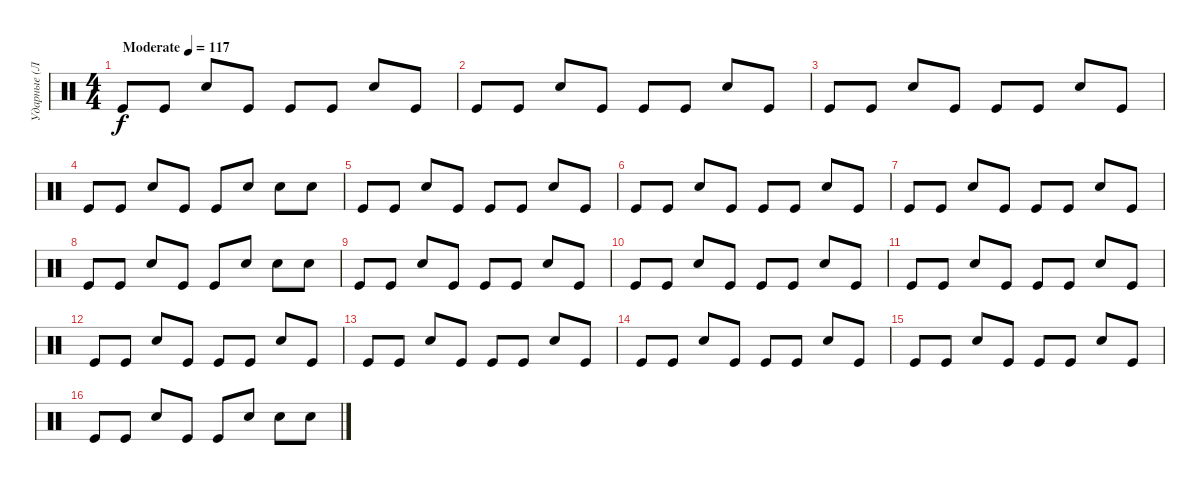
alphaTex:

\track ("Ударные (Летов)" "Ударные (Л") {instrument percussion}
\staff {score}
\articulation defaults
\ts (4 4)
\tempo (117 "Moderate")
\clef neutral
\ks c "Kick (hit)".8{dy f} "Kick (hit)".8 "Snare (hit) 2".8 "Kick (hit)".8 "Kick (hit)".8 "Kick (hit)".8 "Snare (hit) 2".8 "Kick (hit)".8
|
"Kick (hit)".8 "Kick (hit)".8 "Snare (hit) 2".8 "Kick (hit)".8 "Kick (hit)".8 "Kick (hit)".8 "Snare (hit) 2".8 "Kick (hit)".8 |
"Kick (hit)".8 "Kick (hit)".8 "Snare (hit) 2".8 "Kick (hit)".8 "Kick (hit)".8 "Kick (hit)".8 "Snare (hit) 2".8 "Kick (hit)".8 |
"Kick (hit)".8 "Kick (hit)".8 "Snare (hit) 2".8 "Kick (hit)".8 "Kick (hit)".8 "Snare (hit) 2".8 "Snare (hit) 2".8 "Snare (hit) 2".8 |
"Kick (hit)".8 "Kick (hit)".8 "Snare (hit) 2".8 "Kick (hit)".8 "Kick (hit)".8 "Kick (hit)".8 "Snare (hit) 2".8 "Kick (hit)".8 |
"Kick (hit)".8 "Kick (hit)".8 "Snare (hit) 2".8 "Kick (hit)".8 "Kick (hit)".8 "Kick (hit)".8 "Snare (hit) 2".8 "Kick (hit)".8 |
"Kick (hit)".8 "Kick (hit)".8 "Snare (hit) 2".8 "Kick (hit)".8 "Kick (hit)".8 "Kick (hit)".8 "Snare (hit) 2".8 "Kick (hit)".8 |
"Kick (hit)".8 "Kick (hit)".8 "Snare (hit) 2".8 "Kick (hit)".8 "Kick (hit)".8 "Snare (hit) 2".8 "Snare (hit) 2".8 "Snare (hit) 2".8 |
"Kick (hit)".8 "Kick (hit)".8 "Snare (hit) 2".8 "Kick (hit)".8 "Kick (hit)".8 "Kick (hit)".8 "Snare (hit) 2".8 "Kick (hit)".8 |
"Kick (hit)".8 "Kick (hit)".8 "Snare (hit) 2".8 "Kick (hit)".8 "Kick (hit)".8 "Kick (hit)".8 "Snare (hit) 2".8 "Kick (hit)".8 |
"Kick (hit)".8 "Kick (hit)".8 "Snare (hit) 2".8 "Kick (hit)".8 "Kick (hit)".8 "Kick (hit)".8 "Snare (hit) 2".8 "Kick (hit)".8 |
"Kick (hit)".8 "Kick (hit)".8 "Snare (hit) 2".8 "Kick (hit)".8 "Kick (hit)".8 "Kick (hit)".8 "Snare (hit) 2".8 "Kick (hit)".8 |
"Kick (hit)".8 "Kick (hit)".8 "Snare (hit) 2".8 "Kick (hit)".8 "Kick (hit)".8 "Kick (hit)".8 "Snare (hit) 2".8 "Kick (hit)".8 |
"Kick (hit)".8 "Kick (hit)".8 "Snare (hit) 2".8 "Kick (hit)".8 "Kick (hit)".8 "Kick (hit)".8 "Snare (hit) 2".8 "Kick (hit)".8 |
"Kick (hit)".8 "Kick (hit)".8 "Snare (hit) 2".8 "Kick (hit)".8 "Kick (hit)".8 "Kick (hit)".8 "Snare (hit) 2".8 "Kick (hit)".8 |
"Kick (hit)".8 "Kick (hit)".8 "Snare (hit) 2".8 "Kick (hit)".8 "Kick (hit)".8 "Snare (hit) 2".8 "Snare (hit) 2".8 "Snare (hit) 2".8
